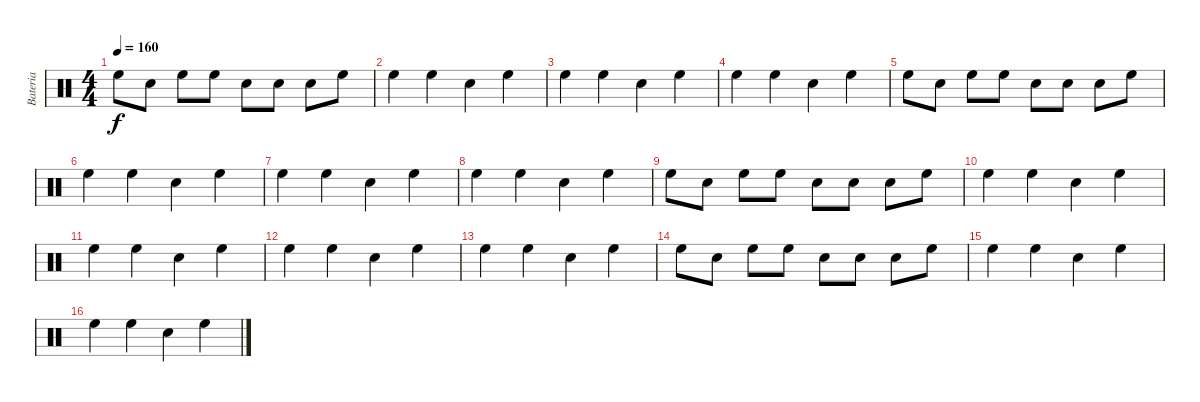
\track ("Bateria" "Bateria") {instrument percussion}
\staff {score}
\articulation defaults
\ts (4 4)
\tempo 160
\clef neutral
\ks c "High Floor Tom (hit)".8{dy f} "Snare (hit) 2".8 "High Floor Tom (hit)".8 "High Floor Tom (hit)".8 "Snare (hit) 2".8 "Snare (hit) 2".8 "Snare (hit) 2".8 "High Floor Tom (hit)".8
|
"High Floor Tom (hit)".4 "High Floor Tom (hit)".4 "Snare (hit) 2".4 "High Floor Tom (hit)".4 |
"High Floor Tom (hit)".4 "High Floor Tom (hit)".4 "Snare (hit) 2".4 "High Floor Tom (hit)".4 |
"High Floor Tom (hit)".4 "High Floor Tom (hit)".4 "Snare (hit) 2".4 "High Floor Tom (hit)".4 |
"High Floor Tom (hit)".8 "Snare (hit) 2".8 "High Floor Tom (hit)".8 "High Floor Tom (hit)".8 "Snare (hit) 2".8 "Snare (hit) 2".8 "Snare (hit) 2".8 "High Floor Tom (hit)".8 |
"High Floor Tom (hit)".4 "High Floor Tom (hit)".4 "Snare (hit) 2".4 "High Floor Tom (hit)".4 |
"High Floor Tom (hit)".4 "High Floor Tom (hit)".4 "Snare (hit) 2".4 "High Floor Tom (hit)".4 |
"High Floor Tom (hit)".4 "High Floor Tom (hit)".4 "Snare (hit) 2".4 "High Floor Tom (hit)".4 |
"High Floor Tom (hit)".8 "Snare (hit) 2".8 "High Floor Tom (hit)".8 "High Floor Tom (hit)".8 "Snare (hit) 2".8 "Snare (hit) 2".8 "Snare (hit) 2".8 "High Floor Tom (hit)".8 |
"High Floor Tom (hit)".4 "High Floor Tom (hit)".4 "Snare (hit) 2".4 "High Floor Tom (hit)".4 |
"High Floor Tom (hit)".4 "High Floor Tom (hit)".4 "Snare (hit) 2".4 "High Floor Tom (hit)".4 |
"High Floor Tom (hit)".4 "High Floor Tom (hit)".4 "Snare (hit) 2".4 "High Floor Tom (hit)".4 |
"High Floor Tom (hit)".4 "High Floor Tom (hit)".4 "Snare (hit) 2".4 "High Floor Tom (hit)".4 |
"High Floor Tom (hit)".8 "Snare (hit) 2".8 "High Floor Tom (hit)".8 "High Floor Tom (hit)".8 "Snare (hit) 2".8 "Snare (hit) 2".8 "Snare (hit) 2".8 "High Floor Tom (hit)".8 |
"High Floor Tom (hit)".4 "High Floor Tom (hit)".4 "Snare (hit) 2".4 "High Floor Tom (hit)".4 |
"High Floor Tom (hit)".4 "High Floor Tom (hit)".4 "Snare (hit) 2".4 "High Floor Tom (hit)".4
